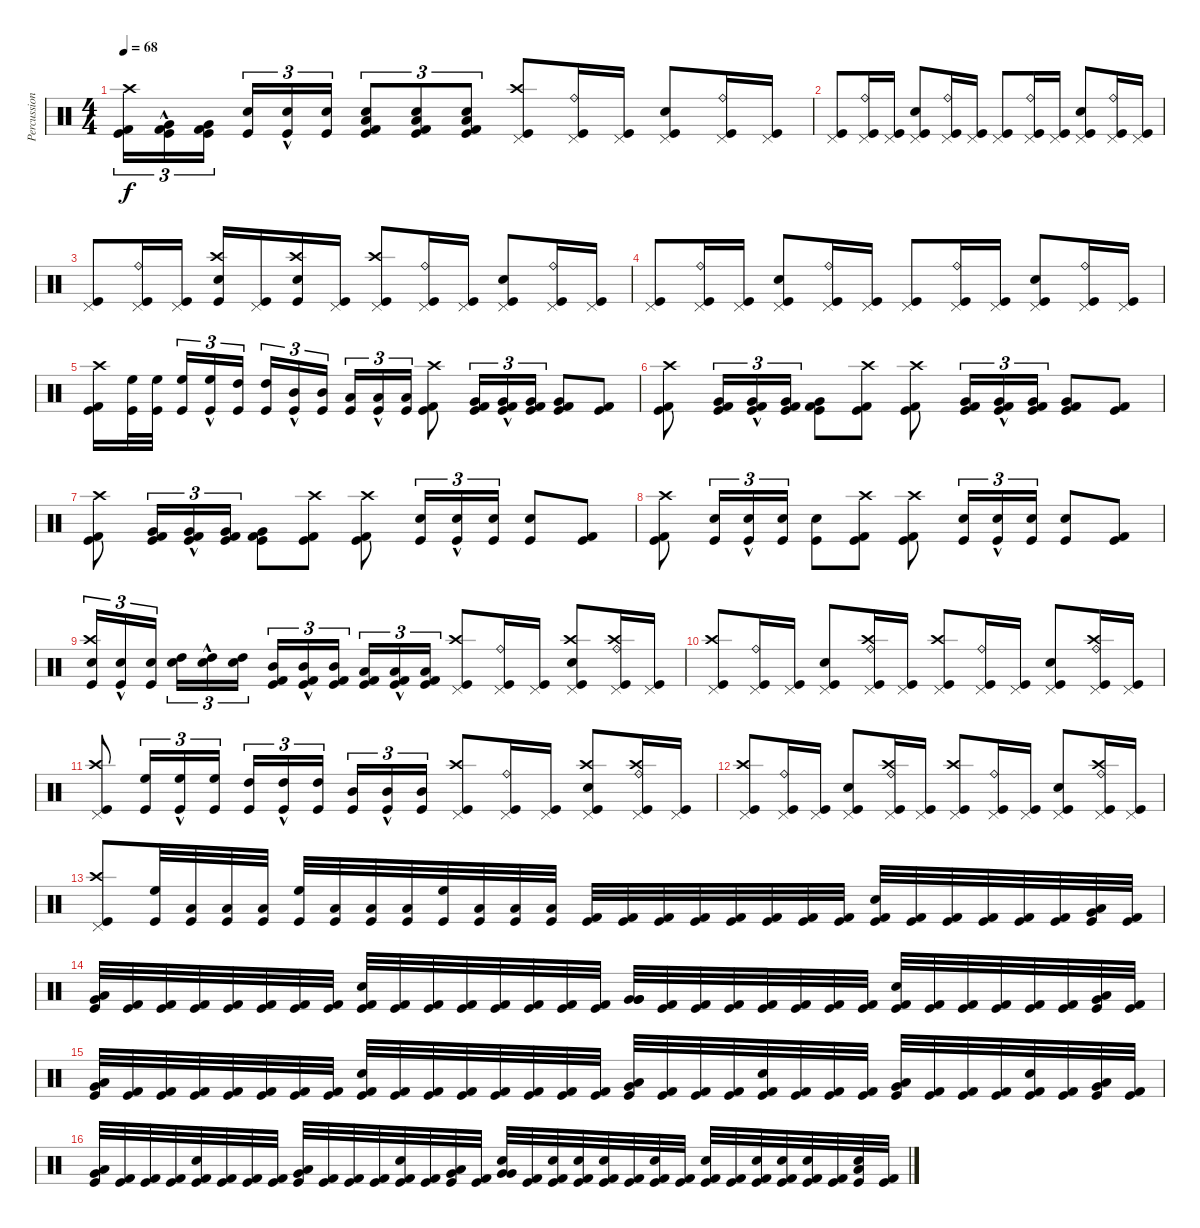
\track ("Percussion" "Percussion") {instrument percussion}
\staff {score}
\articulation defaults
\ts (4 4)
\tempo 68
\clef neutral
\ks c
("Kick (hit)" "Kick (hit) 2" "Crash high (hit)").16{tu (3 2) dy f} ("Kick (hit)"{hac} "Kick (hit) 2"{hac} "Very Low Tom (hit)"{hac}).16{tu (3 2)} ("Kick (hit)" "Kick (hit) 2" "Very Low Tom (hit)").16{tu (3 2)} ("Kick (hit)" "Snare (hit) 2").16{tu (3 2)} ("Kick (hit)"{hac} "Snare (hit) 2"{hac}).16{tu (3 2)} ("Kick (hit)" "Snare (hit) 2").16{tu (3 2)} ("Kick (hit)" "Kick (hit) 2" "Snare (hit) 2" "Low Floor Tom (hit)").8{tu (3 2)} ("Kick (hit)" "Kick (hit) 2" "Snare (hit) 2" "Low Floor Tom (hit)").8{tu (3 2)} ("Kick (hit)" "Kick (hit) 2" "Snare (hit) 2" "Low Floor Tom (hit)").8{tu (3 2)} ("Kick (hit)" "Pedal Hi-Hat (hit)" "Crash high (hit)").8 ("Kick (hit)" "Pedal Hi-Hat (hit)" "Ride (bell)").16 ("Kick (hit)" "Pedal Hi-Hat (hit)").16 ("Kick (hit)" "Snare (hit) 2" "Pedal Hi-Hat (hit)").8 ("Kick (hit)" "Pedal Hi-Hat (hit)" "Ride (bell)").16 ("Kick (hit)" "Pedal Hi-Hat (hit)").16 |
("Kick (hit)" "Pedal Hi-Hat (hit)").8 ("Kick (hit)" "Pedal Hi-Hat (hit)" "Ride (bell)").16 ("Kick (hit)" "Pedal Hi-Hat (hit)").16 ("Kick (hit)" "Snare (hit) 2" "Pedal Hi-Hat (hit)").8 ("Kick (hit)" "Pedal Hi-Hat (hit)" "Ride (bell)").16 ("Kick (hit)" "Pedal Hi-Hat (hit)").16 ("Kick (hit)" "Pedal Hi-Hat (hit)").8 ("Kick (hit)" "Pedal Hi-Hat (hit)" "Ride (bell)").16 ("Kick (hit)" "Pedal Hi-Hat (hit)").16 ("Kick (hit)" "Snare (hit) 2" "Pedal Hi-Hat (hit)").8 ("Kick (hit)" "Pedal Hi-Hat (hit)" "Ride (bell)").16 ("Kick (hit)" "Pedal Hi-Hat (hit)").16 |
("Kick (hit)" "Pedal Hi-Hat (hit)").8 ("Kick (hit)" "Pedal Hi-Hat (hit)" "Ride (bell)").16 ("Kick (hit)" "Pedal Hi-Hat (hit)").16 ("Kick (hit)" "Snare (hit) 2" "Crash high (hit)").16 ("Kick (hit)" "Pedal Hi-Hat (hit)").16 ("Kick (hit)" "Snare (hit) 2" "Crash high (hit)").16 ("Kick (hit)" "Pedal Hi-Hat (hit)").16 ("Kick (hit)" "Pedal Hi-Hat (hit)" "Crash high (hit)").8 ("Kick (hit)" "Pedal Hi-Hat (hit)" "Ride (bell)").16 ("Kick (hit)" "Pedal Hi-Hat (hit)").16 ("Kick (hit)" "Snare (hit) 2" "Pedal Hi-Hat (hit)").8 ("Kick (hit)" "Pedal Hi-Hat (hit)" "Ride (bell)").16 ("Kick (hit)" "Pedal Hi-Hat (hit)").16 |
("Kick (hit)" "Pedal Hi-Hat (hit)").8 ("Kick (hit)" "Pedal Hi-Hat (hit)" "Ride (bell)").16 ("Kick (hit)" "Pedal Hi-Hat (hit)").16 ("Kick (hit)" "Snare (hit) 2" "Pedal Hi-Hat (hit)").8 ("Kick (hit)" "Pedal Hi-Hat (hit)" "Ride (bell)").16 ("Kick (hit)" "Pedal Hi-Hat (hit)").16 ("Kick (hit)" "Pedal Hi-Hat (hit)").8 ("Kick (hit)" "Pedal Hi-Hat (hit)" "Ride (bell)").16 ("Kick (hit)" "Pedal Hi-Hat (hit)").16 ("Kick (hit)" "Snare (hit) 2" "Pedal Hi-Hat (hit)").8 ("Kick (hit)" "Pedal Hi-Hat (hit)" "Ride (bell)").16 ("Kick (hit)" "Pedal Hi-Hat (hit)").16 |
("Kick (hit)" "Kick (hit) 2" "Crash high (hit)").16 ("Kick (hit)" "High Floor Tom (hit)").32 ("Kick (hit)" "High Floor Tom (hit)").32 ("Kick (hit)" "High Floor Tom (hit)").16{tu (3 2)} ("Kick (hit)"{hac} "High Floor Tom (hit)"{hac}).16{tu (3 2)} ("Kick (hit)" "High Tom (hit)").16{tu (3 2)} ("Kick (hit)" "High Tom (hit)").16{tu (3 2)} ("Kick (hit)"{hac} "Mid Tom (hit)"{hac}).16{tu (3 2)} ("Kick (hit)" "Mid Tom (hit)").16{tu (3 2)} ("Kick (hit)" "Low Tom (hit)").16{tu (3 2)} ("Kick (hit)"{hac} "Low Tom (hit)"{hac}).16{tu (3 2)} ("Kick (hit)" "Low Floor Tom (hit)").16{tu (3 2)} ("Kick (hit)" "Kick (hit) 2" "Crash high (hit)").8 ("Kick (hit)" "Kick (hit) 2" "Very Low Tom (hit)").16{tu (3 2)} ("Kick (hit)"{hac} "Kick (hit) 2"{hac} "Very Low Tom (hit)"{hac}).16{tu (3 2)} ("Kick (hit)" "Kick (hit) 2" "Very Low Tom (hit)").16{tu (3 2)} ("Kick (hit)" "Kick (hit) 2" "Very Low Tom (hit)").8 ("Kick (hit)" "Kick (hit) 2").8 |
("Kick (hit)" "Kick (hit) 2" "Crash high (hit)").8 ("Kick (hit)" "Kick (hit) 2" "Very Low Tom (hit)").16{tu (3 2)} ("Kick (hit)"{hac} "Kick (hit) 2"{hac} "Very Low Tom (hit)"{hac}).16{tu (3 2)} ("Kick (hit)" "Kick (hit) 2" "Very Low Tom (hit)").16{tu (3 2)} ("Kick (hit)" "Kick (hit) 2" "Very Low Tom (hit)").8 ("Kick (hit)" "Kick (hit) 2" "Crash high (hit)").8 ("Kick (hit)" "Kick (hit) 2" "Crash high (hit)").8 ("Kick (hit)" "Kick (hit) 2" "Very Low Tom (hit)").16{tu (3 2)} ("Kick (hit)"{hac} "Kick (hit) 2"{hac} "Very Low Tom (hit)"{hac}).16{tu (3 2)} ("Kick (hit)" "Kick (hit) 2" "Very Low Tom (hit)").16{tu (3 2)} ("Kick (hit)" "Kick (hit) 2" "Very Low Tom (hit)").8 ("Kick (hit)" "Kick (hit) 2").8 |
("Kick (hit)" "Kick (hit) 2" "Crash high (hit)").8 ("Kick (hit)" "Kick (hit) 2" "Very Low Tom (hit)").16{tu (3 2)} ("Kick (hit)"{hac} "Kick (hit) 2"{hac} "Very Low Tom (hit)"{hac}).16{tu (3 2)} ("Kick (hit)" "Kick (hit) 2" "Very Low Tom (hit)").16{tu (3 2)} ("Kick (hit)" "Kick (hit) 2" "Very Low Tom (hit)").8 ("Kick (hit)" "Kick (hit) 2" "Crash high (hit)").8 ("Kick (hit)" "Kick (hit) 2" "Crash high (hit)").8 ("Kick (hit)" "Snare (hit) 2").16{tu (3 2)} ("Kick (hit)"{hac} "Snare (hit) 2"{hac}).16{tu (3 2)} ("Kick (hit)" "Snare (hit) 2").16{tu (3 2)} ("Kick (hit)" "Snare (hit) 2").8 ("Kick (hit)" "Kick (hit) 2").8 |
("Kick (hit)" "Kick (hit) 2" "Crash high (hit)").8 ("Kick (hit)" "Snare (hit) 2").16{tu (3 2)} ("Kick (hit)"{hac} "Snare (hit) 2"{hac}).16{tu (3 2)} ("Kick (hit)" "Snare (hit) 2").16{tu (3 2)} ("Kick (hit)" "Snare (hit) 2").8 ("Kick (hit)" "Kick (hit) 2" "Crash high (hit)").8 ("Kick (hit)" "Kick (hit) 2" "Crash high (hit)").8 ("Kick (hit)" "Snare (hit) 2").16{tu (3 2)} ("Kick (hit)"{hac} "Snare (hit) 2"{hac}).16{tu (3 2)} ("Kick (hit)" "Snare (hit) 2").16{tu (3 2)} ("Kick (hit)" "Snare (hit) 2").8 ("Kick (hit)" "Kick (hit) 2").8 |
("Kick (hit)" "Snare (hit) 2" "Crash high (hit)").16{tu (3 2)} ("Kick (hit)"{hac} "Snare (hit) 2"{hac}).16{tu (3 2)} ("Kick (hit)" "Snare (hit) 2").16{tu (3 2)} ("Snare (hit) 2" "High Tom (hit)").16{tu (3 2)} ("Snare (hit) 2"{hac} "High Tom (hit)"{hac}).16{tu (3 2)} ("Snare (hit) 2" "High Tom (hit)").16{tu (3 2)} ("Kick (hit)" "Kick (hit) 2" "Mid Tom (hit)").16{tu (3 2)} ("Kick (hit)"{hac} "Kick (hit) 2"{hac} "Mid Tom (hit)"{hac}).16{tu (3 2)} ("Kick (hit)" "Kick (hit) 2" "Mid Tom (hit)").16{tu (3 2)} ("Kick (hit)" "Kick (hit) 2" "Low Tom (hit)").16{tu (3 2)} ("Kick (hit)"{hac} "Kick (hit) 2"{hac} "Low Tom (hit)"{hac}).16{tu (3 2)} ("Kick (hit)" "Kick (hit) 2" "Low Tom (hit)").16{tu (3 2)} ("Kick (hit)" "Pedal Hi-Hat (hit)" "Crash high (hit)").8 ("Kick (hit)" "Pedal Hi-Hat (hit)" "Ride (bell)").16 ("Kick (hit)" "Pedal Hi-Hat (hit)").16 ("Kick (hit)" "Snare (hit) 2" "Pedal Hi-Hat (hit)" "Crash high (hit)").8 ("Kick (hit)" "Pedal Hi-Hat (hit)" "Crash high (hit)" "Ride (bell)").16 ("Kick (hit)" "Pedal Hi-Hat (hit)").16 |
("Kick (hit)" "Pedal Hi-Hat (hit)" "Crash high (hit)").8 ("Kick (hit)" "Pedal Hi-Hat (hit)" "Ride (bell)").16 ("Kick (hit)" "Pedal Hi-Hat (hit)").16 ("Kick (hit)" "Snare (hit) 2" "Pedal Hi-Hat (hit)").8 ("Kick (hit)" "Pedal Hi-Hat (hit)" "Crash high (hit)" "Ride (bell)").16 ("Kick (hit)" "Pedal Hi-Hat (hit)").16 ("Kick (hit)" "Pedal Hi-Hat (hit)" "Crash high (hit)").8 ("Kick (hit)" "Pedal Hi-Hat (hit)" "Ride (bell)").16 ("Kick (hit)" "Pedal Hi-Hat (hit)").16 ("Kick (hit)" "Snare (hit) 2" "Pedal Hi-Hat (hit)").8 ("Kick (hit)" "Pedal Hi-Hat (hit)" "Crash high (hit)" "Ride (bell)").16 ("Kick (hit)" "Pedal Hi-Hat (hit)").16 |
("Kick (hit)" "Pedal Hi-Hat (hit)" "Crash high (hit)").8 ("Kick (hit)" "High Floor Tom (hit)").16{tu (3 2)} ("Kick (hit)"{hac} "High Floor Tom (hit)"{hac}).16{tu (3 2)} ("Kick (hit)" "High Floor Tom (hit)").16{tu (3 2)} ("Kick (hit)" "High Tom (hit)").16{tu (3 2)} ("Kick (hit)"{hac} "High Tom (hit)"{hac}).16{tu (3 2)} ("Kick (hit)" "High Tom (hit)").16{tu (3 2)} ("Kick (hit)" "Mid Tom (hit)").16{tu (3 2)} ("Kick (hit)"{hac} "Mid Tom (hit)"{hac}).16{tu (3 2)} ("Kick (hit)" "Mid Tom (hit)").16{tu (3 2)} ("Kick (hit)" "Pedal Hi-Hat (hit)" "Crash high (hit)").8 ("Kick (hit)" "Pedal Hi-Hat (hit)" "Ride (bell)").16 ("Kick (hit)" "Pedal Hi-Hat (hit)").16 ("Kick (hit)" "Snare (hit) 2" "Pedal Hi-Hat (hit)" "Crash high (hit)").8 ("Kick (hit)" "Pedal Hi-Hat (hit)" "Crash high (hit)" "Ride (bell)").16 ("Kick (hit)" "Pedal Hi-Hat (hit)").16 |
("Kick (hit)" "Pedal Hi-Hat (hit)" "Crash high (hit)").8 ("Kick (hit)" "Pedal Hi-Hat (hit)" "Ride (bell)").16 ("Kick (hit)" "Pedal Hi-Hat (hit)").16 ("Kick (hit)" "Snare (hit) 2" "Pedal Hi-Hat (hit)").8 ("Kick (hit)" "Pedal Hi-Hat (hit)" "Crash high (hit)" "Ride (bell)").16 ("Kick (hit)" "Pedal Hi-Hat (hit)").16 ("Kick (hit)" "Pedal Hi-Hat (hit)" "Crash high (hit)").8 ("Kick (hit)" "Pedal Hi-Hat (hit)" "Ride (bell)").16 ("Kick (hit)" "Pedal Hi-Hat (hit)").16 ("Kick (hit)" "Snare (hit) 2" "Pedal Hi-Hat (hit)").8 ("Kick (hit)" "Pedal Hi-Hat (hit)" "Crash high (hit)" "Ride (bell)").16 ("Kick (hit)" "Pedal Hi-Hat (hit)").16 |
("Kick (hit)" "Pedal Hi-Hat (hit)" "Crash high (hit)").8 ("Kick (hit)" "High Floor Tom (hit)").32 ("Kick (hit)" "Low Tom (hit)").32 ("Kick (hit)" "Low Tom (hit)").32 ("Kick (hit)" "Low Tom (hit)").32 ("Kick (hit)" "High Floor Tom (hit)").32 ("Kick (hit)" "Low Tom (hit)").32 ("Kick (hit)" "Low Tom (hit)").32 ("Kick (hit)" "Low Tom (hit)").32 ("Kick (hit)" "High Floor Tom (hit)").32 ("Kick (hit)" "Low Tom (hit)").32 ("Kick (hit)" "Low Tom (hit)").32 ("Kick (hit)" "Low Tom (hit)").32 ("Kick (hit)" "Kick (hit) 2").32 ("Kick (hit)" "Kick (hit) 2").32 ("Kick (hit)" "Kick (hit) 2").32 ("Kick (hit)" "Kick (hit) 2").32 ("Kick (hit)" "Kick (hit) 2").32 ("Kick (hit)" "Kick (hit) 2").32 ("Kick (hit)" "Kick (hit) 2").32 ("Kick (hit)" "Kick (hit) 2").32 ("Kick (hit)" "Kick (hit) 2" "Snare (hit) 2").32 ("Kick (hit)" "Kick (hit) 2").32 ("Kick (hit)" "Kick (hit) 2").32 ("Kick (hit)" "Kick (hit) 2").32 ("Kick (hit)" "Kick (hit) 2").32 ("Kick (hit)" "Kick (hit) 2").32 ("Kick (hit)" "Very Low Tom (hit)" "Low Tom (hit)").32 ("Kick (hit)" "Kick (hit) 2").32 |
("Kick (hit)" "Very Low Tom (hit)" "Low Tom (hit)").32 ("Kick (hit)" "Kick (hit) 2").32 ("Kick (hit)" "Kick (hit) 2").32 ("Kick (hit)" "Kick (hit) 2").32 ("Kick (hit)" "Kick (hit) 2").32 ("Kick (hit)" "Kick (hit) 2").32 ("Kick (hit)" "Kick (hit) 2").32 ("Kick (hit)" "Kick (hit) 2").32 ("Kick (hit)" "Kick (hit) 2" "Snare (hit) 2").32 ("Kick (hit)" "Kick (hit) 2").32 ("Kick (hit)" "Kick (hit) 2").32 ("Kick (hit)" "Kick (hit) 2").32 ("Kick (hit)" "Kick (hit) 2").32 ("Kick (hit)" "Kick (hit) 2").32 ("Kick (hit)" "Kick (hit) 2").32 ("Kick (hit)" "Kick (hit) 2").32 ("Very Low Tom (hit)" "Very Low Tom (hit)" "Very Low Tom (hit)").32 ("Kick (hit)" "Kick (hit) 2").32 ("Kick (hit)" "Kick (hit) 2").32 ("Kick (hit)" "Kick (hit) 2").32 ("Kick (hit)" "Kick (hit) 2").32 ("Kick (hit)" "Kick (hit) 2").32 ("Kick (hit)" "Kick (hit) 2").32 ("Kick (hit)" "Kick (hit) 2").32 ("Kick (hit)" "Kick (hit) 2" "Snare (hit) 2").32 ("Kick (hit)" "Kick (hit) 2").32 ("Kick (hit)" "Kick (hit) 2").32 ("Kick (hit)" "Kick (hit) 2").32 ("Kick (hit)" "Kick (hit) 2").32 ("Kick (hit)" "Kick (hit) 2").32 ("Kick (hit)" "Very Low Tom (hit)" "Low Tom (hit)").32 ("Kick (hit)" "Kick (hit) 2").32 |
("Kick (hit)" "Very Low Tom (hit)" "Low Tom (hit)").32 ("Kick (hit)" "Kick (hit) 2").32 ("Kick (hit)" "Kick (hit) 2").32 ("Kick (hit)" "Kick (hit) 2").32 ("Kick (hit)" "Kick (hit) 2").32 ("Kick (hit)" "Kick (hit) 2").32 ("Kick (hit)" "Kick (hit) 2").32 ("Kick (hit)" "Kick (hit) 2").32 ("Kick (hit)" "Kick (hit) 2" "Snare (hit) 2").32 ("Kick (hit)" "Kick (hit) 2").32 ("Kick (hit)" "Kick (hit) 2").32 ("Kick (hit)" "Kick (hit) 2").32 ("Kick (hit)" "Kick (hit) 2").32 ("Kick (hit)" "Kick (hit) 2").32 ("Kick (hit)" "Kick (hit) 2").32 ("Kick (hit)" "Kick (hit) 2").32 ("Kick (hit)" "Very Low Tom (hit)" "Low Tom (hit)").32 ("Kick (hit)" "Kick (hit) 2").32 ("Kick (hit)" "Kick (hit) 2").32 ("Kick (hit)" "Kick (hit) 2").32 ("Kick (hit)" "Kick (hit) 2" "Snare (hit) 2").32 ("Kick (hit)" "Kick (hit) 2").32 ("Kick (hit)" "Kick (hit) 2").32 ("Kick (hit)" "Kick (hit) 2").32 ("Kick (hit)" "Very Low Tom (hit)" "Low Tom (hit)").32 ("Kick (hit)" "Kick (hit) 2").32 ("Kick (hit)" "Kick (hit) 2").32 ("Kick (hit)" "Kick (hit) 2").32 ("Kick (hit)" "Kick (hit) 2" "Snare (hit) 2").32 ("Kick (hit)" "Kick (hit) 2").32 ("Kick (hit)" "Very Low Tom (hit)" "Low Tom (hit)").32 ("Kick (hit)" "Kick (hit) 2").32 |
("Kick (hit)" "Very Low Tom (hit)" "Low Tom (hit)").32 ("Kick (hit)" "Kick (hit) 2").32 ("Kick (hit)" "Kick (hit) 2").32 ("Kick (hit)" "Kick (hit) 2").32 ("Kick (hit)" "Kick (hit) 2" "Snare (hit) 2").32 ("Kick (hit)" "Kick (hit) 2").32 ("Kick (hit)" "Kick (hit) 2").32 ("Kick (hit)" "Kick (hit) 2").32 ("Kick (hit)" "Very Low Tom (hit)" "Low Tom (hit)").32 ("Kick (hit)" "Kick (hit) 2").32 ("Kick (hit)" "Kick (hit) 2").32 ("Kick (hit)" "Kick (hit) 2").32 ("Kick (hit)" "Kick (hit) 2" "Snare (hit) 2").32 ("Kick (hit)" "Kick (hit) 2").32 ("Kick (hit)" "Very Low Tom (hit)" "Low Tom (hit)").32 ("Kick (hit)" "Kick (hit) 2").32 ("Snare (hit) 2" "Very Low Tom (hit)" "Very Low Tom (hit)").32 ("Kick (hit)" "Kick (hit) 2").32 ("Kick (hit)" "Kick (hit) 2" "Snare (hit) 2").32 ("Kick (hit)" "Kick (hit) 2" "Snare (hit) 2").32 ("Kick (hit)" "Kick (hit) 2" "Snare (hit) 2").32 ("Kick (hit)" "Kick (hit) 2").32 ("Kick (hit)" "Kick (hit) 2" "Snare (hit) 2").32 ("Kick (hit)" "Kick (hit) 2").32 ("Kick (hit)" "Kick (hit) 2" "Snare (hit) 2").32 ("Kick (hit)" "Kick (hit) 2").32 ("Kick (hit)" "Kick (hit) 2" "Snare (hit) 2").32 ("Kick (hit)" "Kick (hit) 2" "Snare (hit) 2").32 ("Kick (hit)" "Kick (hit) 2" "Snare (hit) 2").32 ("Kick (hit)" "Kick (hit) 2").32 ("Kick (hit)" "Snare (hit) 2" "Low Tom (hit)").32 ("Kick (hit)" "Kick (hit) 2").32
